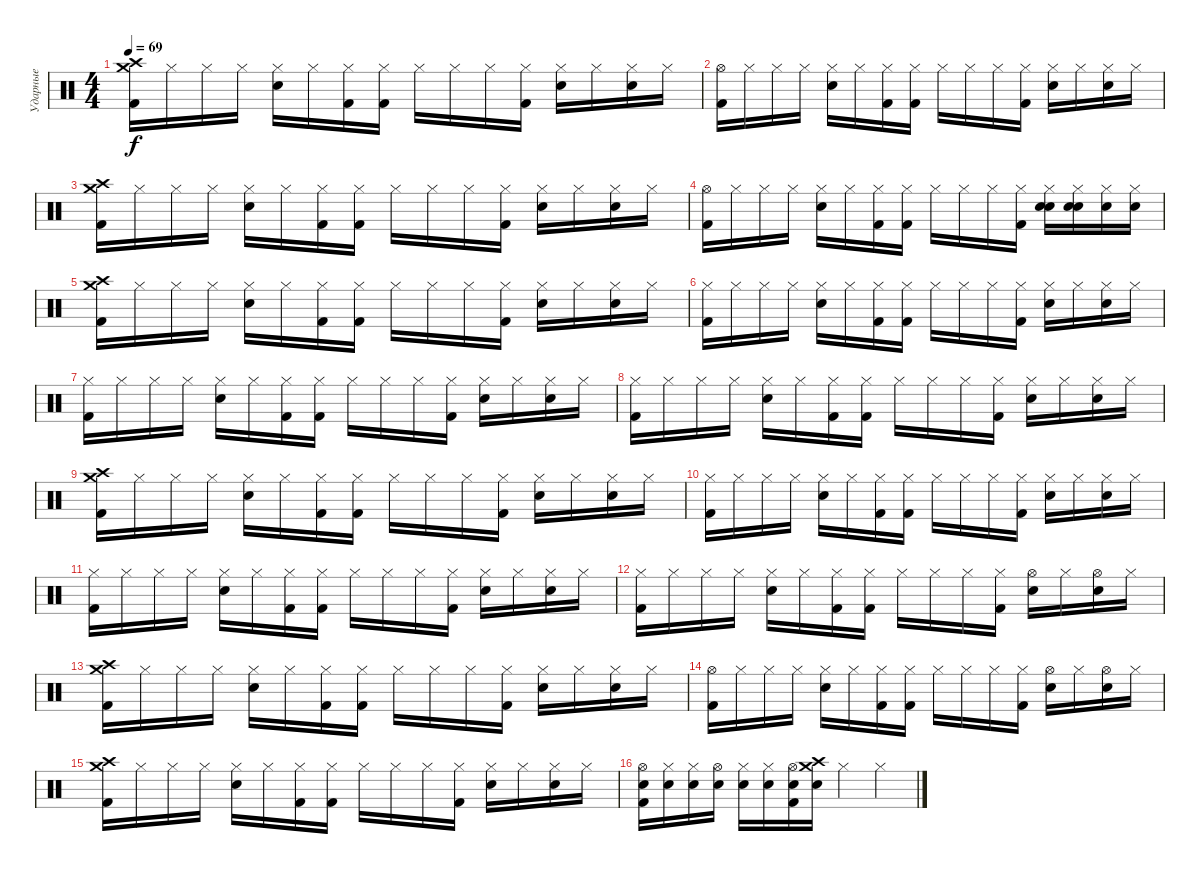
\track ("Ударные" "Ударные") {instrument percussion}
\staff {score}
\articulation defaults
\ts (4 4)
\tempo 69
\clef neutral
\ks c
("Crash high (hit)" "Crash medium (hit)" "Kick (hit) 2").16{dy f} "Hi-Hat (closed)".16 "Hi-Hat (closed)".16 "Hi-Hat (closed)".16 ("Hi-Hat (closed)" "Snare (hit) 2").16 "Hi-Hat (closed)".16 ("Hi-Hat (closed)" "Kick (hit) 2").16 ("Hi-Hat (closed)" "Kick (hit) 2").16 "Hi-Hat (closed)".16 "Hi-Hat (closed)".16 "Hi-Hat (closed)".16 ("Hi-Hat (closed)" "Kick (hit) 2").16 ("Hi-Hat (closed)" "Snare (hit) 2").16 "Hi-Hat (closed)".16 ("Hi-Hat (closed)" "Snare (hit) 2").16 "Hi-Hat (closed)".16 |
("Hi-Hat (open)" "Kick (hit) 2").16 "Hi-Hat (closed)".16 "Hi-Hat (closed)".16 "Hi-Hat (closed)".16 ("Hi-Hat (closed)" "Snare (hit) 2").16 "Hi-Hat (closed)".16 ("Hi-Hat (closed)" "Kick (hit) 2").16 ("Hi-Hat (closed)" "Kick (hit) 2").16 "Hi-Hat (closed)".16 "Hi-Hat (closed)".16 "Hi-Hat (closed)".16 ("Hi-Hat (closed)" "Kick (hit) 2").16 ("Hi-Hat (closed)" "Snare (hit) 2").16 "Hi-Hat (closed)".16 ("Hi-Hat (closed)" "Snare (hit) 2").16 "Hi-Hat (closed)".16 |
("Crash high (hit)" "Crash medium (hit)" "Kick (hit) 2").16 "Hi-Hat (closed)".16 "Hi-Hat (closed)".16 "Hi-Hat (closed)".16 ("Hi-Hat (closed)" "Snare (hit) 2").16 "Hi-Hat (closed)".16 ("Hi-Hat (closed)" "Kick (hit) 2").16 ("Hi-Hat (closed)" "Kick (hit) 2").16 "Hi-Hat (closed)".16 "Hi-Hat (closed)".16 "Hi-Hat (closed)".16 ("Hi-Hat (closed)" "Kick (hit) 2").16 ("Hi-Hat (closed)" "Snare (hit) 2").16 "Hi-Hat (closed)".16 ("Hi-Hat (closed)" "Snare (hit) 2").16 "Hi-Hat (closed)".16 |
("Hi-Hat (open)" "Kick (hit) 2").16 "Hi-Hat (closed)".16 "Hi-Hat (closed)".16 "Hi-Hat (closed)".16 ("Hi-Hat (closed)" "Snare (hit) 2").16 "Hi-Hat (closed)".16 ("Hi-Hat (closed)" "Kick (hit) 2").16 ("Hi-Hat (closed)" "Kick (hit) 2").16 "Hi-Hat (closed)".16 "Hi-Hat (closed)".16 "Hi-Hat (closed)".16 ("Hi-Hat (closed)" "Kick (hit) 2").16 ("Hi-Hat (closed)" "Snare (hit) 2" "Snare (hit) 2").16 ("Hi-Hat (closed)" "Snare (hit) 2" "Snare (hit) 2").16 ("Hi-Hat (closed)" "Snare (hit) 2").16 ("Hi-Hat (closed)" "Snare (hit) 2").16 |
("Crash high (hit)" "Crash medium (hit)" "Kick (hit) 2").16 "Hi-Hat (closed)".16 "Hi-Hat (closed)".16 "Hi-Hat (closed)".16 ("Hi-Hat (closed)" "Snare (hit) 2").16 "Hi-Hat (closed)".16 ("Hi-Hat (closed)" "Kick (hit) 2").16 ("Hi-Hat (closed)" "Kick (hit) 2").16 "Hi-Hat (closed)".16 "Hi-Hat (closed)".16 "Hi-Hat (closed)".16 ("Hi-Hat (closed)" "Kick (hit) 2").16 ("Hi-Hat (closed)" "Snare (hit) 2").16 "Hi-Hat (closed)".16 ("Hi-Hat (closed)" "Snare (hit) 2").16 "Hi-Hat (closed)".16 |
("Hi-Hat (closed)" "Kick (hit) 2").16 "Hi-Hat (closed)".16 "Hi-Hat (closed)".16 "Hi-Hat (closed)".16 ("Hi-Hat (closed)" "Snare (hit) 2").16 "Hi-Hat (closed)".16 ("Hi-Hat (closed)" "Kick (hit) 2").16 ("Hi-Hat (closed)" "Kick (hit) 2").16 "Hi-Hat (closed)".16 "Hi-Hat (closed)".16 "Hi-Hat (closed)".16 ("Hi-Hat (closed)" "Kick (hit) 2").16 ("Hi-Hat (closed)" "Snare (hit) 2").16 "Hi-Hat (closed)".16 ("Hi-Hat (closed)" "Snare (hit) 2").16 "Hi-Hat (closed)".16 |
("Hi-Hat (closed)" "Kick (hit) 2").16 "Hi-Hat (closed)".16 "Hi-Hat (closed)".16 "Hi-Hat (closed)".16 ("Hi-Hat (closed)" "Snare (hit) 2").16 "Hi-Hat (closed)".16 ("Hi-Hat (closed)" "Kick (hit) 2").16 ("Hi-Hat (closed)" "Kick (hit) 2").16 "Hi-Hat (closed)".16 "Hi-Hat (closed)".16 "Hi-Hat (closed)".16 ("Hi-Hat (closed)" "Kick (hit) 2").16 ("Hi-Hat (closed)" "Snare (hit) 2").16 "Hi-Hat (closed)".16 ("Hi-Hat (closed)" "Snare (hit) 2").16 "Hi-Hat (closed)".16 |
("Hi-Hat (closed)" "Kick (hit) 2").16 "Hi-Hat (closed)".16 "Hi-Hat (closed)".16 "Hi-Hat (closed)".16 ("Hi-Hat (closed)" "Snare (hit) 2").16 "Hi-Hat (closed)".16 ("Hi-Hat (closed)" "Kick (hit) 2").16 ("Hi-Hat (closed)" "Kick (hit) 2").16 "Hi-Hat (closed)".16 "Hi-Hat (closed)".16 "Hi-Hat (closed)".16 ("Hi-Hat (closed)" "Kick (hit) 2").16 ("Hi-Hat (closed)" "Snare (hit) 2").16 "Hi-Hat (closed)".16 ("Hi-Hat (closed)" "Snare (hit) 2").16 "Hi-Hat (closed)".16 |
("Crash high (hit)" "Crash medium (hit)" "Kick (hit) 2").16 "Hi-Hat (closed)".16 "Hi-Hat (closed)".16 "Hi-Hat (closed)".16 ("Hi-Hat (closed)" "Snare (hit) 2").16 "Hi-Hat (closed)".16 ("Hi-Hat (closed)" "Kick (hit) 2").16 ("Hi-Hat (closed)" "Kick (hit) 2").16 "Hi-Hat (closed)".16 "Hi-Hat (closed)".16 "Hi-Hat (closed)".16 ("Hi-Hat (closed)" "Kick (hit) 2").16 ("Hi-Hat (closed)" "Snare (hit) 2").16 "Hi-Hat (closed)".16 ("Hi-Hat (closed)" "Snare (hit) 2").16 "Hi-Hat (closed)".16 |
("Hi-Hat (closed)" "Kick (hit) 2").16 "Hi-Hat (closed)".16 "Hi-Hat (closed)".16 "Hi-Hat (closed)".16 ("Hi-Hat (closed)" "Snare (hit) 2").16 "Hi-Hat (closed)".16 ("Hi-Hat (closed)" "Kick (hit) 2").16 ("Hi-Hat (closed)" "Kick (hit) 2").16 "Hi-Hat (closed)".16 "Hi-Hat (closed)".16 "Hi-Hat (closed)".16 ("Hi-Hat (closed)" "Kick (hit) 2").16 ("Hi-Hat (closed)" "Snare (hit) 2").16 "Hi-Hat (closed)".16 ("Hi-Hat (closed)" "Snare (hit) 2").16 "Hi-Hat (closed)".16 |
("Hi-Hat (closed)" "Kick (hit) 2").16 "Hi-Hat (closed)".16 "Hi-Hat (closed)".16 "Hi-Hat (closed)".16 ("Hi-Hat (closed)" "Snare (hit) 2").16 "Hi-Hat (closed)".16 ("Hi-Hat (closed)" "Kick (hit) 2").16 ("Hi-Hat (closed)" "Kick (hit) 2").16 "Hi-Hat (closed)".16 "Hi-Hat (closed)".16 "Hi-Hat (closed)".16 ("Hi-Hat (closed)" "Kick (hit) 2").16 ("Hi-Hat (closed)" "Snare (hit) 2").16 "Hi-Hat (closed)".16 ("Hi-Hat (closed)" "Snare (hit) 2").16 "Hi-Hat (closed)".16 |
("Hi-Hat (closed)" "Kick (hit) 2").16 "Hi-Hat (closed)".16 "Hi-Hat (closed)".16 "Hi-Hat (closed)".16 ("Hi-Hat (closed)" "Snare (hit) 2").16 "Hi-Hat (closed)".16 ("Hi-Hat (closed)" "Kick (hit) 2").16 ("Hi-Hat (closed)" "Kick (hit) 2").16 "Hi-Hat (closed)".16 "Hi-Hat (closed)".16 "Hi-Hat (closed)".16 ("Hi-Hat (closed)" "Kick (hit) 2").16 ("Hi-Hat (open)" "Snare (hit) 2").16 "Hi-Hat (closed)".16 ("Hi-Hat (open)" "Snare (hit) 2").16 "Hi-Hat (closed)".16 |
("Crash high (hit)" "Crash medium (hit)" "Kick (hit) 2").16 "Hi-Hat (closed)".16 "Hi-Hat (closed)".16 "Hi-Hat (closed)".16 ("Hi-Hat (closed)" "Snare (hit) 2").16 "Hi-Hat (closed)".16 ("Hi-Hat (closed)" "Kick (hit) 2").16 ("Hi-Hat (closed)" "Kick (hit) 2").16 "Hi-Hat (closed)".16 "Hi-Hat (closed)".16 "Hi-Hat (closed)".16 ("Hi-Hat (closed)" "Kick (hit) 2").16 ("Hi-Hat (closed)" "Snare (hit) 2").16 "Hi-Hat (closed)".16 ("Hi-Hat (closed)" "Snare (hit) 2").16 "Hi-Hat (closed)".16 |
("Hi-Hat (open)" "Kick (hit) 2").16 "Hi-Hat (closed)".16 "Hi-Hat (closed)".16 "Hi-Hat (closed)".16 ("Hi-Hat (closed)" "Snare (hit) 2").16 "Hi-Hat (closed)".16 ("Hi-Hat (closed)" "Kick (hit) 2").16 ("Hi-Hat (closed)" "Kick (hit) 2").16 "Hi-Hat (closed)".16 "Hi-Hat (closed)".16 "Hi-Hat (closed)".16 ("Hi-Hat (closed)" "Kick (hit) 2").16 ("Hi-Hat (open)" "Snare (hit) 2").16 "Hi-Hat (closed)".16 ("Hi-Hat (open)" "Snare (hit) 2").16 "Hi-Hat (closed)".16 |
("Crash high (hit)" "Crash medium (hit)" "Kick (hit) 2").16 "Hi-Hat (closed)".16 "Hi-Hat (closed)".16 "Hi-Hat (closed)".16 ("Hi-Hat (closed)" "Snare (hit) 2").16 "Hi-Hat (closed)".16 ("Hi-Hat (closed)" "Kick (hit) 2").16 ("Hi-Hat (closed)" "Kick (hit) 2").16 "Hi-Hat (closed)".16 "Hi-Hat (closed)".16 "Hi-Hat (closed)".16 ("Hi-Hat (closed)" "Kick (hit) 2").16 ("Hi-Hat (closed)" "Snare (hit) 2").16 "Hi-Hat (closed)".16 ("Hi-Hat (closed)" "Snare (hit) 2").16 "Hi-Hat (closed)".16 |
("Hi-Hat (open)" "Snare (hit) 2" "Kick (hit) 2").16 ("Hi-Hat (closed)" "Snare (hit) 2").16 ("Hi-Hat (closed)" "Snare (hit) 2").16 ("Hi-Hat (open)" "Snare (hit) 2").16 ("Hi-Hat (closed)" "Snare (hit) 2").16 ("Hi-Hat (closed)" "Snare (hit) 2").16 ("Hi-Hat (open)" "Snare (hit) 2" "Kick (hit) 2").16 ("Crash high (hit)" "Crash medium (hit)" "Snare (hit) 2").16 "Hi-Hat (closed)".4 "Hi-Hat (closed)".4
